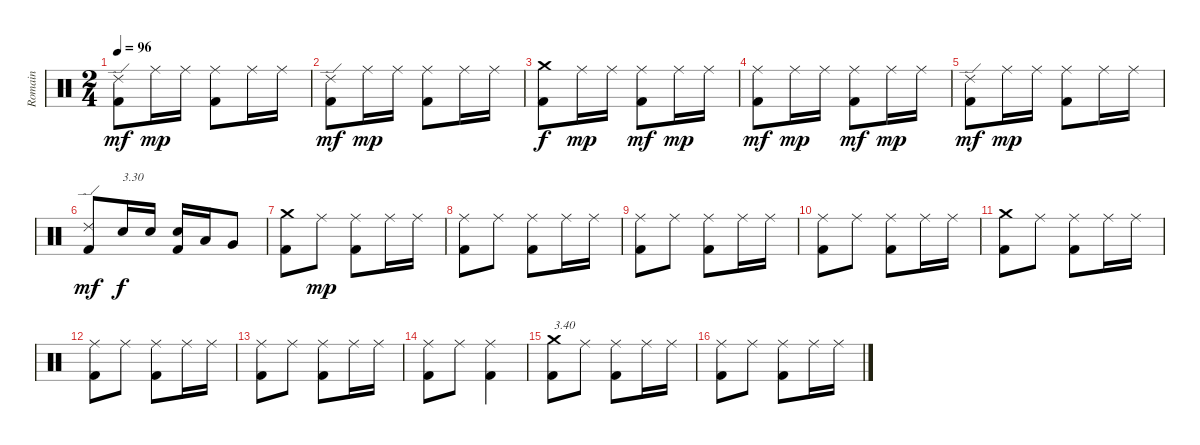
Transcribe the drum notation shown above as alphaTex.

\track ("Romain" "Romain") {instrument percussion}
\staff {score}
\articulation defaults
\ts (2 4)
\tempo 96
\clef neutral
\ks c
("Kick (hit) 2" "Ride (edge) 2").8{dy mf} "Ride (middle)".16{dy mp} "Ride (middle)".16 ("Kick (hit) 2" "Ride (middle)").8 "Ride (middle)".16 "Ride (middle)".16 |
("Kick (hit) 2" "Ride (edge) 2").8{dy mf} "Ride (middle)".16{dy mp} "Ride (middle)".16 ("Kick (hit) 2" "Ride (middle)").8 "Ride (middle)".16 "Ride (middle)".16 |
("Kick (hit) 2" "Crash medium (hit)").8{dy f} "Ride (middle)".16{dy mp} "Ride (middle)".16 ("Kick (hit) 2" "Ride (middle)").8{dy mf} "Ride (middle)".16{dy mp} "Ride (middle)".16 |
("Kick (hit) 2" "Ride (middle)").8{dy mf} "Ride (middle)".16{dy mp} "Ride (middle)".16 ("Kick (hit) 2" "Ride (middle)").8{dy mf} "Ride (middle)".16{dy mp} "Ride (middle)".16 |
("Kick (hit) 2" "Ride (edge) 2").8{dy mf} "Ride (middle)".16{dy mp} "Ride (middle)".16 ("Kick (hit) 2" "Ride (middle)").8 "Ride (middle)".16 "Ride (middle)".16 |
("Kick (hit) 2" "Ride (edge) 2").8{dy mf} "Electric Snare (hit)".16{txt "3.30" dy f} "Electric Snare (hit)".16 ("Kick (hit) 2" "Electric Snare (hit)").16 "Low Tom (hit)".16 "Very Low Tom (hit)".8 |
("Kick (hit) 2" "Crash medium (hit)").8 "Ride (middle)".8{dy mp} ("Kick (hit) 2" "Ride (middle)").8 "Ride (middle)".16 "Ride (middle)".16 |
("Kick (hit) 2" "Ride (middle)").8 "Ride (middle)".8 ("Kick (hit) 2" "Ride (middle)").8 "Ride (middle)".16 "Ride (middle)".16 |
("Kick (hit) 2" "Ride (middle)").8 "Ride (middle)".8 ("Kick (hit) 2" "Ride (middle)").8 "Ride (middle)".16 "Ride (middle)".16 |
("Kick (hit) 2" "Ride (middle)").8 "Ride (middle)".8 ("Kick (hit) 2" "Ride (middle)").8 "Ride (middle)".16 "Ride (middle)".16 |
("Kick (hit) 2" "Crash medium (hit)").8 "Ride (middle)".8 ("Kick (hit) 2" "Ride (middle)").8 "Ride (middle)".16 "Ride (middle)".16 |
("Kick (hit) 2" "Ride (middle)").8 "Ride (middle)".8 ("Kick (hit) 2" "Ride (middle)").8 "Ride (middle)".16 "Ride (middle)".16 |
("Kick (hit) 2" "Ride (middle)").8 "Ride (middle)".8 ("Kick (hit) 2" "Ride (middle)").8 "Ride (middle)".16 "Ride (middle)".16 |
("Kick (hit) 2" "Ride (middle)").8 "Ride (middle)".8 ("Kick (hit) 2" "Ride (middle)").4 |
("Kick (hit) 2" "Crash medium (hit)").8{txt "3.40"} "Ride (middle)".8 ("Kick (hit) 2" "Ride (middle)").8 "Ride (middle)".16 "Ride (middle)".16 |
("Kick (hit) 2" "Ride (middle)").8 "Ride (middle)".8 ("Kick (hit) 2" "Ride (middle)").8 "Ride (middle)".16 "Ride (middle)".16
